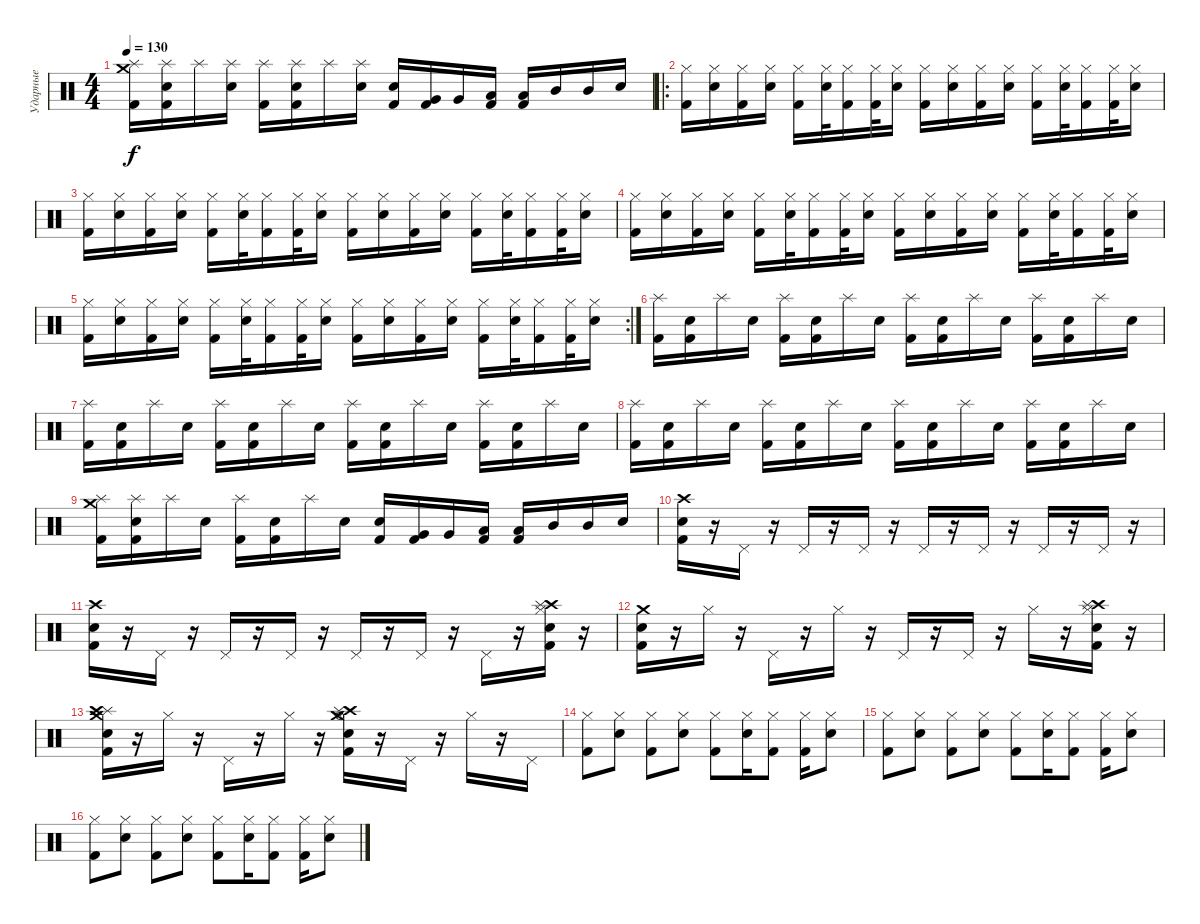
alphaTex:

\track ("Ударные" "Ударные") {instrument percussion}
\staff {score}
\articulation defaults
\ts (4 4)
\tempo 130
\clef neutral
\ks c
("Crash medium (hit)" "Splash (hit)" "Kick (hit) 2").16{dy f} ("Electric Snare (hit)" "Splash (hit)" "Kick (hit) 2").16 "Splash (hit)".16 ("Electric Snare (hit)" "Splash (hit)").16 ("Splash (hit)" "Kick (hit) 2").16 ("Electric Snare (hit)" "Splash (hit)" "Kick (hit) 2").16 "Splash (hit)".16 ("Electric Snare (hit)" "Splash (hit)").16 ("Electric Snare (hit)" "Kick (hit) 2").16 ("Very Low Tom (hit)" "Kick (hit) 2").16 "Very Low Tom (hit)".16 ("Low Tom (hit)" "Kick (hit) 2").16 ("Low Tom (hit)" "Kick (hit) 2").16 "Mid Tom (hit)".16 "Mid Tom (hit)".16 "Snare (hit) 2".16 |
\ro
("Hi-Hat (closed)" "Kick (hit) 2").16 ("Hi-Hat (closed)" "Snare (hit) 2").16 ("Hi-Hat (closed)" "Kick (hit) 2").16 ("Hi-Hat (closed)" "Snare (hit) 2").16 ("Hi-Hat (closed)" "Kick (hit) 2").16 ("Hi-Hat (closed)" "Snare (hit) 2").32 ("Hi-Hat (closed)" "Kick (hit) 2").16 ("Hi-Hat (closed)" "Kick (hit) 2").32 ("Hi-Hat (closed)" "Snare (hit) 2").16 ("Hi-Hat (closed)" "Kick (hit) 2").16 ("Hi-Hat (closed)" "Snare (hit) 2").16 ("Hi-Hat (closed)" "Kick (hit) 2").16 ("Hi-Hat (closed)" "Snare (hit) 2").16 ("Hi-Hat (closed)" "Kick (hit) 2").16 ("Hi-Hat (closed)" "Snare (hit) 2").32 ("Hi-Hat (closed)" "Kick (hit) 2").16 ("Hi-Hat (closed)" "Kick (hit) 2").32 ("Hi-Hat (closed)" "Snare (hit) 2").16 |
("Hi-Hat (closed)" "Kick (hit) 2").16 ("Hi-Hat (closed)" "Snare (hit) 2").16 ("Hi-Hat (closed)" "Kick (hit) 2").16 ("Hi-Hat (closed)" "Snare (hit) 2").16 ("Hi-Hat (closed)" "Kick (hit) 2").16 ("Hi-Hat (closed)" "Snare (hit) 2").32 ("Hi-Hat (closed)" "Kick (hit) 2").16 ("Hi-Hat (closed)" "Kick (hit) 2").32 ("Hi-Hat (closed)" "Snare (hit) 2").16 ("Hi-Hat (closed)" "Kick (hit) 2").16 ("Hi-Hat (closed)" "Snare (hit) 2").16 ("Hi-Hat (closed)" "Kick (hit) 2").16 ("Hi-Hat (closed)" "Snare (hit) 2").16 ("Hi-Hat (closed)" "Kick (hit) 2").16 ("Hi-Hat (closed)" "Snare (hit) 2").32 ("Hi-Hat (closed)" "Kick (hit) 2").16 ("Hi-Hat (closed)" "Kick (hit) 2").32 ("Hi-Hat (closed)" "Snare (hit) 2").16 |
("Hi-Hat (closed)" "Kick (hit) 2").16 ("Hi-Hat (closed)" "Snare (hit) 2").16 ("Hi-Hat (closed)" "Kick (hit) 2").16 ("Hi-Hat (closed)" "Snare (hit) 2").16 ("Hi-Hat (closed)" "Kick (hit) 2").16 ("Hi-Hat (closed)" "Snare (hit) 2").32 ("Hi-Hat (closed)" "Kick (hit) 2").16 ("Hi-Hat (closed)" "Kick (hit) 2").32 ("Hi-Hat (closed)" "Snare (hit) 2").16 ("Hi-Hat (closed)" "Kick (hit) 2").16 ("Hi-Hat (closed)" "Snare (hit) 2").16 ("Hi-Hat (closed)" "Kick (hit) 2").16 ("Hi-Hat (closed)" "Snare (hit) 2").16 ("Hi-Hat (closed)" "Kick (hit) 2").16 ("Hi-Hat (closed)" "Snare (hit) 2").32 ("Hi-Hat (closed)" "Kick (hit) 2").16 ("Hi-Hat (closed)" "Kick (hit) 2").32 ("Hi-Hat (closed)" "Snare (hit) 2").16 |
\rc 2
("Hi-Hat (closed)" "Kick (hit) 2").16 ("Hi-Hat (closed)" "Snare (hit) 2").16 ("Hi-Hat (closed)" "Kick (hit) 2").16 ("Hi-Hat (closed)" "Snare (hit) 2").16 ("Hi-Hat (closed)" "Kick (hit) 2").16 ("Hi-Hat (closed)" "Snare (hit) 2").32 ("Hi-Hat (closed)" "Kick (hit) 2").16 ("Hi-Hat (closed)" "Kick (hit) 2").32 ("Hi-Hat (closed)" "Snare (hit) 2").16 ("Hi-Hat (closed)" "Kick (hit) 2").16 ("Hi-Hat (closed)" "Snare (hit) 2").16 ("Hi-Hat (closed)" "Kick (hit) 2").16 ("Hi-Hat (closed)" "Snare (hit) 2").16 ("Hi-Hat (closed)" "Kick (hit) 2").16 ("Hi-Hat (closed)" "Snare (hit) 2").32 ("Hi-Hat (closed)" "Kick (hit) 2").16 ("Hi-Hat (closed)" "Kick (hit) 2").32 ("Hi-Hat (closed)" "Snare (hit) 2").16 |
("Splash (hit)" "Kick (hit) 2").16 ("Electric Snare (hit)" "Kick (hit) 2").16 "Splash (hit)".16 "Electric Snare (hit)".16 ("Splash (hit)" "Kick (hit) 2").16 ("Electric Snare (hit)" "Kick (hit) 2").16 "Splash (hit)".16 "Electric Snare (hit)".16 ("Splash (hit)" "Kick (hit) 2").16 ("Electric Snare (hit)" "Kick (hit) 2").16 "Splash (hit)".16 "Electric Snare (hit)".16 ("Splash (hit)" "Kick (hit) 2").16 ("Electric Snare (hit)" "Kick (hit) 2").16 "Splash (hit)".16 "Electric Snare (hit)".16 |
("Splash (hit)" "Kick (hit) 2").16 ("Electric Snare (hit)" "Kick (hit) 2").16 "Splash (hit)".16 "Electric Snare (hit)".16 ("Splash (hit)" "Kick (hit) 2").16 ("Electric Snare (hit)" "Kick (hit) 2").16 "Splash (hit)".16 "Electric Snare (hit)".16 ("Splash (hit)" "Kick (hit) 2").16 ("Electric Snare (hit)" "Kick (hit) 2").16 "Splash (hit)".16 "Electric Snare (hit)".16 ("Splash (hit)" "Kick (hit) 2").16 ("Electric Snare (hit)" "Kick (hit) 2").16 "Splash (hit)".16 "Electric Snare (hit)".16 |
("Splash (hit)" "Kick (hit) 2").16 ("Electric Snare (hit)" "Kick (hit) 2").16 "Splash (hit)".16 "Electric Snare (hit)".16 ("Splash (hit)" "Kick (hit) 2").16 ("Electric Snare (hit)" "Kick (hit) 2").16 "Splash (hit)".16 "Electric Snare (hit)".16 ("Splash (hit)" "Kick (hit) 2").16 ("Electric Snare (hit)" "Kick (hit) 2").16 "Splash (hit)".16 "Electric Snare (hit)".16 ("Splash (hit)" "Kick (hit) 2").16 ("Electric Snare (hit)" "Kick (hit) 2").16 "Splash (hit)".16 "Electric Snare (hit)".16 |
("Crash medium (hit)" "Splash (hit)" "Kick (hit) 2").16 ("Electric Snare (hit)" "Splash (hit)" "Kick (hit) 2").16 "Splash (hit)".16 "Electric Snare (hit)".16 ("Splash (hit)" "Kick (hit) 2").16 ("Electric Snare (hit)" "Kick (hit) 2").16 "Splash (hit)".16 "Electric Snare (hit)".16 ("Electric Snare (hit)" "Kick (hit) 2").16 ("Very Low Tom (hit)" "Kick (hit) 2").16 "Very Low Tom (hit)".16 ("Low Tom (hit)" "Kick (hit) 2").16 ("Low Tom (hit)" "Kick (hit) 2").16 "Mid Tom (hit)".16 "Mid Tom (hit)".16 "Snare (hit) 2".16 |
("Crash high (hit)" "Snare (hit) 2" "Kick (hit) 2").16 r.16 "Pedal Hi-Hat (hit)".16 r.16 "Pedal Hi-Hat (hit)".16 r.16 "Pedal Hi-Hat (hit)".16 r.16 "Pedal Hi-Hat (hit)".16 r.16 "Pedal Hi-Hat (hit)".16 r.16 "Pedal Hi-Hat (hit)".16 r.16 "Pedal Hi-Hat (hit)".16 r.16 |
("Crash high (hit)" "Snare (hit) 2" "Kick (hit) 2").16 r.16 "Pedal Hi-Hat (hit)".16 r.16 "Pedal Hi-Hat (hit)".16 r.16 "Pedal Hi-Hat (hit)".16 r.16 "Pedal Hi-Hat (hit)".16 r.16 "Pedal Hi-Hat (hit)".16 r.16 "Pedal Hi-Hat (hit)".16 r.16 ("Crash high (hit)" "Splash (hit)" "Snare (hit) 2" "Hi-Hat (closed)" "Kick (hit) 2").16 r.16 |
("Crash medium (hit)" "Snare (hit) 2" "Kick (hit) 2").16 r.16 "Hi-Hat (closed)".16 r.16 "Pedal Hi-Hat (hit)".16 r.16 "Hi-Hat (closed)".16 r.16 "Pedal Hi-Hat (hit)".16 r.16 "Pedal Hi-Hat (hit)".16 r.16 "Hi-Hat (closed)".16 r.16 ("Crash high (hit)" "Splash (hit)" "Snare (hit) 2" "Hi-Hat (closed)" "Kick (hit) 2").16 r.16 |
("Crash medium (hit)" "Splash (hit)" "Crash high (hit)" "Snare (hit) 2" "Kick (hit) 2").16 r.16 "Hi-Hat (closed)".16 r.16 "Pedal Hi-Hat (hit)".16 r.16 "Hi-Hat (closed)".16 r.16 ("Crash medium (hit)" "Hi-Hat (open)" "Crash high (hit)" "Splash (hit)" "Snare (hit) 2" "Kick (hit) 2").16 r.16 "Pedal Hi-Hat (hit)".16 r.16 "Hi-Hat (closed)".16 r.16 "Pedal Hi-Hat (hit)".16 |
("Hi-Hat (closed)" "Kick (hit) 2").8 ("Hi-Hat (closed)" "Snare (hit) 2").8 ("Hi-Hat (closed)" "Kick (hit) 2").8 ("Hi-Hat (closed)" "Snare (hit) 2").8 ("Hi-Hat (closed)" "Kick (hit) 2").8 ("Hi-Hat (closed)" "Snare (hit) 2").16 ("Hi-Hat (closed)" "Kick (hit) 2").8 ("Hi-Hat (closed)" "Kick (hit) 2").16 ("Hi-Hat (closed)" "Snare (hit) 2").8 |
("Hi-Hat (closed)" "Kick (hit) 2").8 ("Hi-Hat (closed)" "Snare (hit) 2").8 ("Hi-Hat (closed)" "Kick (hit) 2").8 ("Hi-Hat (closed)" "Snare (hit) 2").8 ("Hi-Hat (closed)" "Kick (hit) 2").8 ("Hi-Hat (closed)" "Snare (hit) 2").16 ("Hi-Hat (closed)" "Kick (hit) 2").8 ("Hi-Hat (closed)" "Kick (hit) 2").16 ("Hi-Hat (closed)" "Snare (hit) 2").8 |
("Hi-Hat (closed)" "Kick (hit) 2").8 ("Hi-Hat (closed)" "Snare (hit) 2").8 ("Hi-Hat (closed)" "Kick (hit) 2").8 ("Hi-Hat (closed)" "Snare (hit) 2").8 ("Hi-Hat (closed)" "Kick (hit) 2").8 ("Hi-Hat (closed)" "Snare (hit) 2").16 ("Hi-Hat (closed)" "Kick (hit) 2").8 ("Hi-Hat (closed)" "Kick (hit) 2").16 ("Hi-Hat (closed)" "Snare (hit) 2").8
